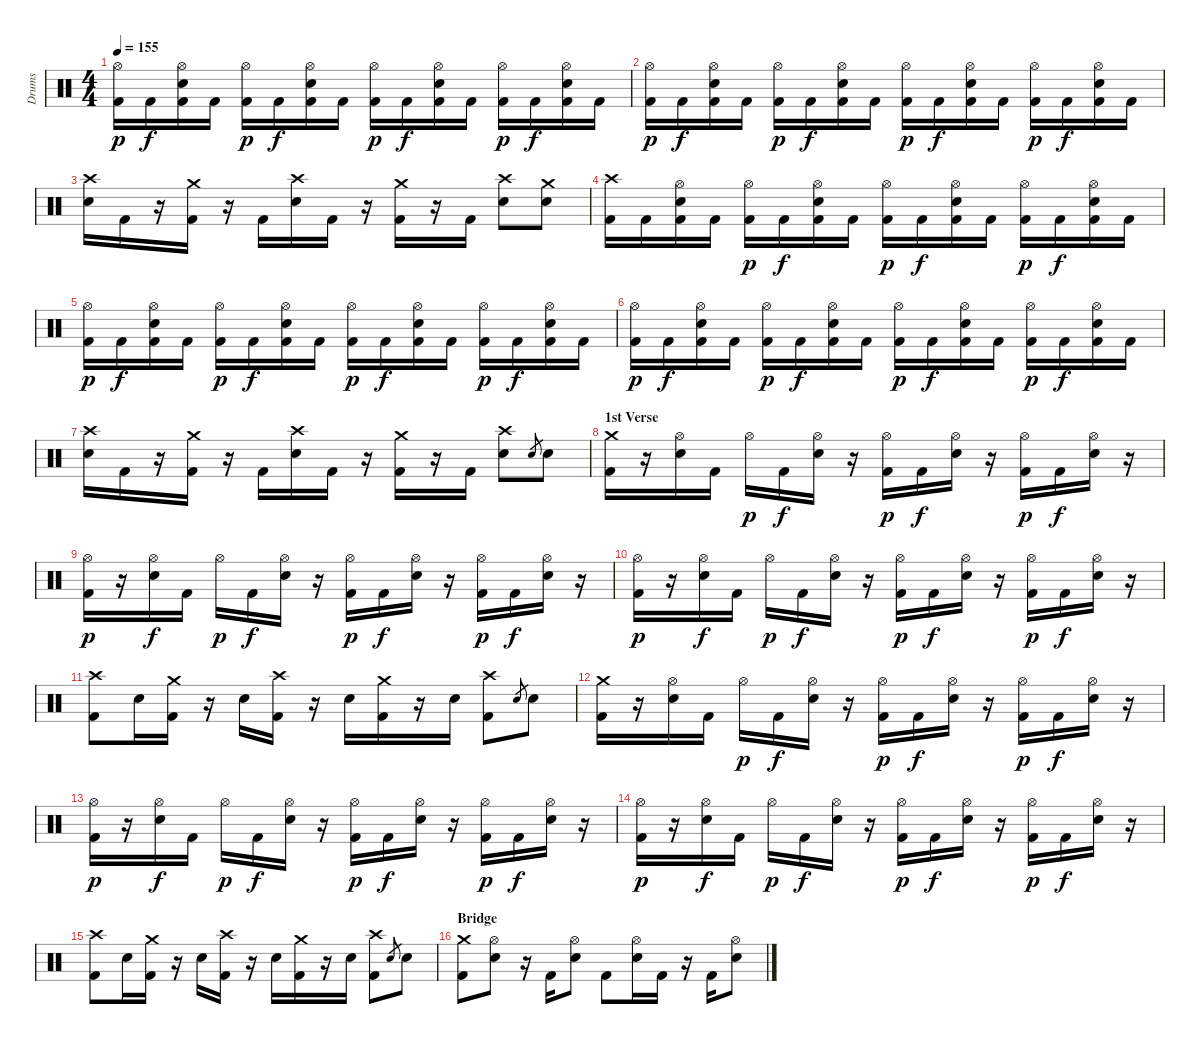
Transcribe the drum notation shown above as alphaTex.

\track ("Drums" "Drums") {instrument percussion}
\staff {score}
\articulation defaults
\ts (4 4)
\tempo 155
\clef neutral
\ks c
("Hi-Hat (open)" "Kick (hit) 2").16{dy p} "Kick (hit) 2".16{dy f} ("Hi-Hat (open)" "Snare (hit) 2" "Kick (hit) 2").16 "Kick (hit) 2".16 ("Hi-Hat (open)" "Kick (hit) 2").16{dy p} "Kick (hit) 2".16{dy f} ("Hi-Hat (open)" "Snare (hit) 2" "Kick (hit) 2").16 "Kick (hit) 2".16 ("Hi-Hat (open)" "Kick (hit) 2").16{dy p} "Kick (hit) 2".16{dy f} ("Hi-Hat (open)" "Snare (hit) 2" "Kick (hit) 2").16 "Kick (hit) 2".16 ("Hi-Hat (open)" "Kick (hit) 2").16{dy p} "Kick (hit) 2".16{dy f} ("Hi-Hat (open)" "Snare (hit) 2" "Kick (hit) 2").16 "Kick (hit) 2".16 |
("Hi-Hat (open)" "Kick (hit) 2").16{dy p} "Kick (hit) 2".16{dy f} ("Hi-Hat (open)" "Snare (hit) 2" "Kick (hit) 2").16 "Kick (hit) 2".16 ("Hi-Hat (open)" "Kick (hit) 2").16{dy p} "Kick (hit) 2".16{dy f} ("Hi-Hat (open)" "Snare (hit) 2" "Kick (hit) 2").16 "Kick (hit) 2".16 ("Hi-Hat (open)" "Kick (hit) 2").16{dy p} "Kick (hit) 2".16{dy f} ("Hi-Hat (open)" "Snare (hit) 2" "Kick (hit) 2").16 "Kick (hit) 2".16 ("Hi-Hat (open)" "Kick (hit) 2").16{dy p} "Kick (hit) 2".16{dy f} ("Hi-Hat (open)" "Snare (hit) 2" "Kick (hit) 2").16 "Kick (hit) 2".16 |
("Crash high (hit)" "Snare (hit) 2").16 "Kick (hit) 2".16 r.16 ("Crash medium (hit)" "Kick (hit) 2").16 r.16 "Kick (hit) 2".16 ("Crash high (hit)" "Snare (hit) 2").16 "Kick (hit) 2".16 r.16 ("Crash medium (hit)" "Kick (hit) 2").16 r.16 "Kick (hit) 2".16 ("Crash high (hit)" "Snare (hit) 2").8 ("Crash medium (hit)" "Snare (hit) 2").8 |
("Crash high (hit)" "Kick (hit) 2").16 "Kick (hit) 2".16 ("Hi-Hat (open)" "Snare (hit) 2" "Kick (hit) 2").16 "Kick (hit) 2".16 ("Hi-Hat (open)" "Kick (hit) 2").16{dy p} "Kick (hit) 2".16{dy f} ("Hi-Hat (open)" "Snare (hit) 2" "Kick (hit) 2").16 "Kick (hit) 2".16 ("Hi-Hat (open)" "Kick (hit) 2").16{dy p} "Kick (hit) 2".16{dy f} ("Hi-Hat (open)" "Snare (hit) 2" "Kick (hit) 2").16 "Kick (hit) 2".16 ("Hi-Hat (open)" "Kick (hit) 2").16{dy p} "Kick (hit) 2".16{dy f} ("Hi-Hat (open)" "Snare (hit) 2" "Kick (hit) 2").16 "Kick (hit) 2".16 |
("Hi-Hat (open)" "Kick (hit) 2").16{dy p} "Kick (hit) 2".16{dy f} ("Hi-Hat (open)" "Snare (hit) 2" "Kick (hit) 2").16 "Kick (hit) 2".16 ("Hi-Hat (open)" "Kick (hit) 2").16{dy p} "Kick (hit) 2".16{dy f} ("Hi-Hat (open)" "Snare (hit) 2" "Kick (hit) 2").16 "Kick (hit) 2".16 ("Hi-Hat (open)" "Kick (hit) 2").16{dy p} "Kick (hit) 2".16{dy f} ("Hi-Hat (open)" "Snare (hit) 2" "Kick (hit) 2").16 "Kick (hit) 2".16 ("Hi-Hat (open)" "Kick (hit) 2").16{dy p} "Kick (hit) 2".16{dy f} ("Hi-Hat (open)" "Snare (hit) 2" "Kick (hit) 2").16 "Kick (hit) 2".16 |
("Hi-Hat (open)" "Kick (hit) 2").16{dy p} "Kick (hit) 2".16{dy f} ("Hi-Hat (open)" "Snare (hit) 2" "Kick (hit) 2").16 "Kick (hit) 2".16 ("Hi-Hat (open)" "Kick (hit) 2").16{dy p} "Kick (hit) 2".16{dy f} ("Hi-Hat (open)" "Snare (hit) 2" "Kick (hit) 2").16 "Kick (hit) 2".16 ("Hi-Hat (open)" "Kick (hit) 2").16{dy p} "Kick (hit) 2".16{dy f} ("Hi-Hat (open)" "Snare (hit) 2" "Kick (hit) 2").16 "Kick (hit) 2".16 ("Hi-Hat (open)" "Kick (hit) 2").16{dy p} "Kick (hit) 2".16{dy f} ("Hi-Hat (open)" "Snare (hit) 2" "Kick (hit) 2").16 "Kick (hit) 2".16 |
("Crash high (hit)" "Snare (hit) 2").16 "Kick (hit) 2".16 r.16 ("Crash medium (hit)" "Kick (hit) 2").16 r.16 "Kick (hit) 2".16 ("Crash high (hit)" "Snare (hit) 2").16 "Kick (hit) 2".16 r.16 ("Crash medium (hit)" "Kick (hit) 2").16 r.16 "Kick (hit) 2".16 ("Crash high (hit)" "Snare (hit) 2").8 "Snare (hit) 2".8{gr} "Snare (hit) 2".8 |
\section ("" "1st Verse")
("Crash medium (hit)" "Kick (hit) 2").16 r.16 ("Hi-Hat (open)" "Snare (hit) 2").16 "Kick (hit) 2".16 "Hi-Hat (open)".16{dy p} "Kick (hit) 2".16{dy f} ("Hi-Hat (open)" "Snare (hit) 2").16 r.16 ("Hi-Hat (open)" "Kick (hit) 2").16{dy p} "Kick (hit) 2".16{dy f} ("Hi-Hat (open)" "Snare (hit) 2").16 r.16 ("Hi-Hat (open)" "Kick (hit) 2").16{dy p} "Kick (hit) 2".16{dy f} ("Hi-Hat (open)" "Snare (hit) 2").16 r.16 |
("Hi-Hat (open)" "Kick (hit) 2").16{dy p} r.16 ("Hi-Hat (open)" "Snare (hit) 2").16{dy f} "Kick (hit) 2".16 "Hi-Hat (open)".16{dy p} "Kick (hit) 2".16{dy f} ("Hi-Hat (open)" "Snare (hit) 2").16 r.16 ("Hi-Hat (open)" "Kick (hit) 2").16{dy p} "Kick (hit) 2".16{dy f} ("Hi-Hat (open)" "Snare (hit) 2").16 r.16 ("Hi-Hat (open)" "Kick (hit) 2").16{dy p} "Kick (hit) 2".16{dy f} ("Hi-Hat (open)" "Snare (hit) 2").16 r.16 |
("Hi-Hat (open)" "Kick (hit) 2").16{dy p} r.16 ("Hi-Hat (open)" "Snare (hit) 2").16{dy f} "Kick (hit) 2".16 "Hi-Hat (open)".16{dy p} "Kick (hit) 2".16{dy f} ("Hi-Hat (open)" "Snare (hit) 2").16 r.16 ("Hi-Hat (open)" "Kick (hit) 2").16{dy p} "Kick (hit) 2".16{dy f} ("Hi-Hat (open)" "Snare (hit) 2").16 r.16 ("Hi-Hat (open)" "Kick (hit) 2").16{dy p} "Kick (hit) 2".16{dy f} ("Hi-Hat (open)" "Snare (hit) 2").16 r.16 |
("Crash high (hit)" "Kick (hit) 2").8 "Snare (hit) 2".16 ("Crash medium (hit)" "Kick (hit) 2").16 r.16 "Snare (hit) 2".16 ("Crash high (hit)" "Kick (hit) 2").16 r.16 "Snare (hit) 2".16 ("Crash medium (hit)" "Kick (hit) 2").16 r.16 "Snare (hit) 2".16 ("Crash high (hit)" "Kick (hit) 2").8 "Snare (hit) 2".8{gr} "Snare (hit) 2".8 |
("Crash medium (hit)" "Kick (hit) 2").16 r.16 ("Hi-Hat (open)" "Snare (hit) 2").16 "Kick (hit) 2".16 "Hi-Hat (open)".16{dy p} "Kick (hit) 2".16{dy f} ("Hi-Hat (open)" "Snare (hit) 2").16 r.16 ("Hi-Hat (open)" "Kick (hit) 2").16{dy p} "Kick (hit) 2".16{dy f} ("Hi-Hat (open)" "Snare (hit) 2").16 r.16 ("Hi-Hat (open)" "Kick (hit) 2").16{dy p} "Kick (hit) 2".16{dy f} ("Hi-Hat (open)" "Snare (hit) 2").16 r.16 |
("Hi-Hat (open)" "Kick (hit) 2").16{dy p} r.16 ("Hi-Hat (open)" "Snare (hit) 2").16{dy f} "Kick (hit) 2".16 "Hi-Hat (open)".16{dy p} "Kick (hit) 2".16{dy f} ("Hi-Hat (open)" "Snare (hit) 2").16 r.16 ("Hi-Hat (open)" "Kick (hit) 2").16{dy p} "Kick (hit) 2".16{dy f} ("Hi-Hat (open)" "Snare (hit) 2").16 r.16 ("Hi-Hat (open)" "Kick (hit) 2").16{dy p} "Kick (hit) 2".16{dy f} ("Hi-Hat (open)" "Snare (hit) 2").16 r.16 |
("Hi-Hat (open)" "Kick (hit) 2").16{dy p} r.16 ("Hi-Hat (open)" "Snare (hit) 2").16{dy f} "Kick (hit) 2".16 "Hi-Hat (open)".16{dy p} "Kick (hit) 2".16{dy f} ("Hi-Hat (open)" "Snare (hit) 2").16 r.16 ("Hi-Hat (open)" "Kick (hit) 2").16{dy p} "Kick (hit) 2".16{dy f} ("Hi-Hat (open)" "Snare (hit) 2").16 r.16 ("Hi-Hat (open)" "Kick (hit) 2").16{dy p} "Kick (hit) 2".16{dy f} ("Hi-Hat (open)" "Snare (hit) 2").16 r.16 |
("Crash high (hit)" "Kick (hit) 2").8 "Snare (hit) 2".16 ("Crash medium (hit)" "Kick (hit) 2").16 r.16 "Snare (hit) 2".16 ("Crash high (hit)" "Kick (hit) 2").16 r.16 "Snare (hit) 2".16 ("Crash medium (hit)" "Kick (hit) 2").16 r.16 "Snare (hit) 2".16 ("Crash high (hit)" "Kick (hit) 2").8 "Snare (hit) 2".8{gr} "Snare (hit) 2".8 |
\section ("" "Bridge")
("Crash medium (hit)" "Kick (hit) 2").8 ("Hi-Hat (open)" "Snare (hit) 2").8 r.16 "Kick (hit) 2".16 ("Hi-Hat (open)" "Snare (hit) 2").8 "Kick (hit) 2".8 ("Hi-Hat (open)" "Snare (hit) 2").16 "Kick (hit) 2".16 r.16 "Kick (hit) 2".16 ("Hi-Hat (open)" "Snare (hit) 2").8
